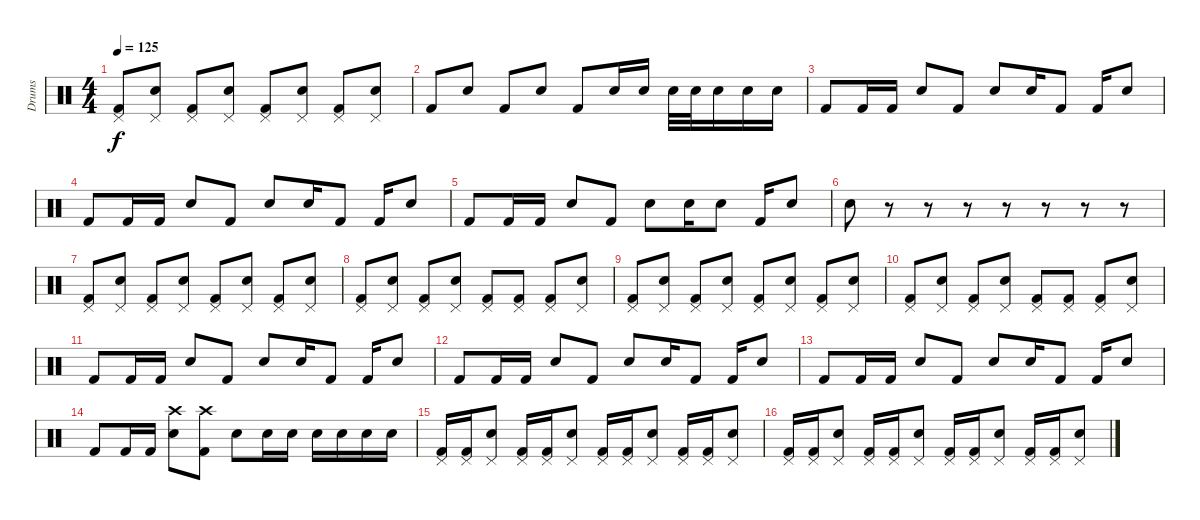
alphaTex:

\track ("Drums" "Drums") {instrument percussion}
\staff {score}
\articulation defaults
\ts (4 4)
\tempo 125
\clef neutral
\ks c
("Kick (hit) 2" "Pedal Hi-Hat (hit)").8{dy f} ("Electric Snare (hit)" "Pedal Hi-Hat (hit)").8 ("Kick (hit) 2" "Pedal Hi-Hat (hit)").8 ("Electric Snare (hit)" "Pedal Hi-Hat (hit)").8 ("Kick (hit) 2" "Pedal Hi-Hat (hit)").8 ("Electric Snare (hit)" "Pedal Hi-Hat (hit)").8 ("Kick (hit) 2" "Pedal Hi-Hat (hit)").8 ("Electric Snare (hit)" "Pedal Hi-Hat (hit)").8 |
"Kick (hit) 2".8 "Electric Snare (hit)".8 "Kick (hit) 2".8 "Electric Snare (hit)".8 "Kick (hit) 2".8 "Electric Snare (hit)".16 "Electric Snare (hit)".16 "Electric Snare (hit)".32 "Electric Snare (hit)".32 "Electric Snare (hit)".16 "Electric Snare (hit)".16 "Electric Snare (hit)".16 |
"Kick (hit) 2".8 "Kick (hit) 2".16 "Kick (hit) 2".16 "Electric Snare (hit)".8 "Kick (hit) 2".8 "Electric Snare (hit)".8 "Electric Snare (hit)".16 "Kick (hit) 2".8 "Kick (hit) 2".16 "Electric Snare (hit)".8 |
"Kick (hit) 2".8 "Kick (hit) 2".16 "Kick (hit) 2".16 "Electric Snare (hit)".8 "Kick (hit) 2".8 "Electric Snare (hit)".8 "Electric Snare (hit)".16 "Kick (hit) 2".8 "Kick (hit) 2".16 "Electric Snare (hit)".8 |
"Kick (hit) 2".8 "Kick (hit) 2".16 "Kick (hit) 2".16 "Electric Snare (hit)".8 "Kick (hit) 2".8 "Electric Snare (hit)".8 "Electric Snare (hit)".16 "Electric Snare (hit)".8 "Kick (hit) 2".16 "Electric Snare (hit)".8 |
"Electric Snare (hit)".8 r.8 r.8 r.8 r.8 r.8 r.8 r.8 |
("Kick (hit) 2" "Pedal Hi-Hat (hit)").8 ("Electric Snare (hit)" "Pedal Hi-Hat (hit)").8 ("Kick (hit) 2" "Pedal Hi-Hat (hit)").8 ("Electric Snare (hit)" "Pedal Hi-Hat (hit)").8 ("Kick (hit) 2" "Pedal Hi-Hat (hit)").8 ("Electric Snare (hit)" "Pedal Hi-Hat (hit)").8 ("Kick (hit) 2" "Pedal Hi-Hat (hit)").8 ("Electric Snare (hit)" "Pedal Hi-Hat (hit)").8 |
("Kick (hit) 2" "Pedal Hi-Hat (hit)").8 ("Electric Snare (hit)" "Pedal Hi-Hat (hit)").8 ("Kick (hit) 2" "Pedal Hi-Hat (hit)").8 ("Electric Snare (hit)" "Pedal Hi-Hat (hit)").8 ("Kick (hit) 2" "Pedal Hi-Hat (hit)").8 ("Kick (hit) 2" "Pedal Hi-Hat (hit)").8 ("Kick (hit) 2" "Pedal Hi-Hat (hit)").8 ("Electric Snare (hit)" "Pedal Hi-Hat (hit)").8 |
("Kick (hit) 2" "Pedal Hi-Hat (hit)").8 ("Electric Snare (hit)" "Pedal Hi-Hat (hit)").8 ("Kick (hit) 2" "Pedal Hi-Hat (hit)").8 ("Electric Snare (hit)" "Pedal Hi-Hat (hit)").8 ("Kick (hit) 2" "Pedal Hi-Hat (hit)").8 ("Electric Snare (hit)" "Pedal Hi-Hat (hit)").8 ("Kick (hit) 2" "Pedal Hi-Hat (hit)").8 ("Electric Snare (hit)" "Pedal Hi-Hat (hit)").8 |
("Kick (hit) 2" "Pedal Hi-Hat (hit)").8 ("Electric Snare (hit)" "Pedal Hi-Hat (hit)").8 ("Kick (hit) 2" "Pedal Hi-Hat (hit)").8 ("Electric Snare (hit)" "Pedal Hi-Hat (hit)").8 ("Kick (hit) 2" "Pedal Hi-Hat (hit)").8 ("Kick (hit) 2" "Pedal Hi-Hat (hit)").8 ("Kick (hit) 2" "Pedal Hi-Hat (hit)").8 ("Electric Snare (hit)" "Pedal Hi-Hat (hit)").8 |
"Kick (hit) 2".8 "Kick (hit) 2".16 "Kick (hit) 2".16 "Electric Snare (hit)".8 "Kick (hit) 2".8 "Electric Snare (hit)".8 "Electric Snare (hit)".16 "Kick (hit) 2".8 "Kick (hit) 2".16 "Electric Snare (hit)".8 |
"Kick (hit) 2".8 "Kick (hit) 2".16 "Kick (hit) 2".16 "Electric Snare (hit)".8 "Kick (hit) 2".8 "Electric Snare (hit)".8 "Electric Snare (hit)".16 "Kick (hit) 2".8 "Kick (hit) 2".16 "Electric Snare (hit)".8 |
"Kick (hit) 2".8 "Kick (hit) 2".16 "Kick (hit) 2".16 "Electric Snare (hit)".8 "Kick (hit) 2".8 "Electric Snare (hit)".8 "Electric Snare (hit)".16 "Kick (hit) 2".8 "Kick (hit) 2".16 "Electric Snare (hit)".8 |
"Kick (hit) 2".8 "Kick (hit) 2".16 "Kick (hit) 2".16 ("Electric Snare (hit)" "Crash high (hit)").8 ("Kick (hit) 2" "Crash high (hit)").8 "Electric Snare (hit)".8 "Electric Snare (hit)".16 "Electric Snare (hit)".16 "Electric Snare (hit)".16 "Electric Snare (hit)".16 "Electric Snare (hit)".16 "Electric Snare (hit)".16 |
("Kick (hit) 2" "Pedal Hi-Hat (hit)").16 ("Kick (hit) 2" "Pedal Hi-Hat (hit)").16 ("Electric Snare (hit)" "Pedal Hi-Hat (hit)").8 ("Kick (hit) 2" "Pedal Hi-Hat (hit)").16 ("Kick (hit) 2" "Pedal Hi-Hat (hit)").16 ("Electric Snare (hit)" "Pedal Hi-Hat (hit)").8 ("Kick (hit) 2" "Pedal Hi-Hat (hit)").16 ("Kick (hit) 2" "Pedal Hi-Hat (hit)").16 ("Electric Snare (hit)" "Pedal Hi-Hat (hit)").8 ("Kick (hit) 2" "Pedal Hi-Hat (hit)").16 ("Kick (hit) 2" "Pedal Hi-Hat (hit)").16 ("Electric Snare (hit)" "Pedal Hi-Hat (hit)").8 |
("Kick (hit) 2" "Pedal Hi-Hat (hit)").16 ("Kick (hit) 2" "Pedal Hi-Hat (hit)").16 ("Electric Snare (hit)" "Pedal Hi-Hat (hit)").8 ("Kick (hit) 2" "Pedal Hi-Hat (hit)").16 ("Kick (hit) 2" "Pedal Hi-Hat (hit)").16 ("Electric Snare (hit)" "Pedal Hi-Hat (hit)").8 ("Kick (hit) 2" "Pedal Hi-Hat (hit)").16 ("Kick (hit) 2" "Pedal Hi-Hat (hit)").16 ("Electric Snare (hit)" "Pedal Hi-Hat (hit)").8 ("Kick (hit) 2" "Pedal Hi-Hat (hit)").16 ("Kick (hit) 2" "Pedal Hi-Hat (hit)").16 ("Electric Snare (hit)" "Pedal Hi-Hat (hit)").8
